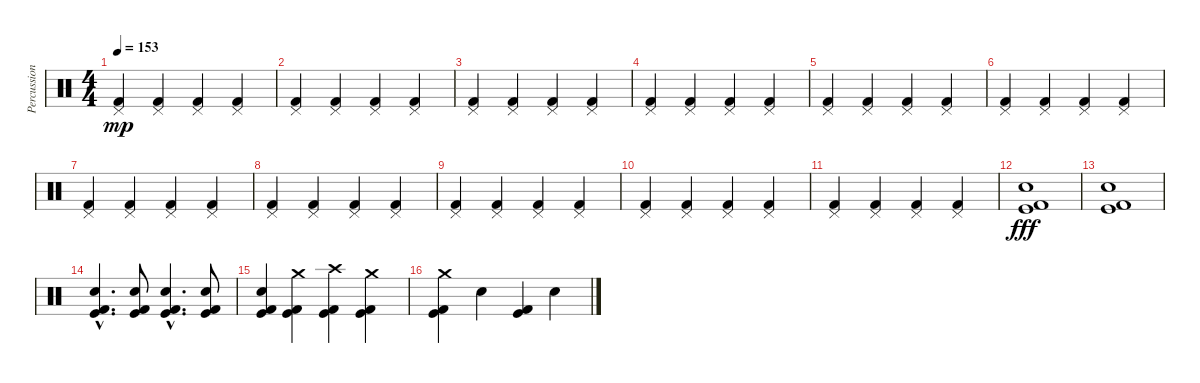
\track ("Percussion" "Percussion") {instrument percussion}
\staff {score}
\articulation defaults
\ts (4 4)
\tempo 153
\clef neutral
\ks c
("Pedal Hi-Hat (hit)" "Kick (hit) 2").4{dy mp} ("Pedal Hi-Hat (hit)" "Kick (hit) 2").4 ("Pedal Hi-Hat (hit)" "Kick (hit) 2").4 ("Pedal Hi-Hat (hit)" "Kick (hit) 2").4 |
("Pedal Hi-Hat (hit)" "Kick (hit) 2").4 ("Pedal Hi-Hat (hit)" "Kick (hit) 2").4 ("Pedal Hi-Hat (hit)" "Kick (hit) 2").4 ("Pedal Hi-Hat (hit)" "Kick (hit) 2").4 |
("Pedal Hi-Hat (hit)" "Kick (hit) 2").4 ("Pedal Hi-Hat (hit)" "Kick (hit) 2").4 ("Pedal Hi-Hat (hit)" "Kick (hit) 2").4 ("Pedal Hi-Hat (hit)" "Kick (hit) 2").4 |
("Pedal Hi-Hat (hit)" "Kick (hit) 2").4 ("Pedal Hi-Hat (hit)" "Kick (hit) 2").4 ("Pedal Hi-Hat (hit)" "Kick (hit) 2").4 ("Pedal Hi-Hat (hit)" "Kick (hit) 2").4 |
("Pedal Hi-Hat (hit)" "Kick (hit) 2").4 ("Pedal Hi-Hat (hit)" "Kick (hit) 2").4 ("Pedal Hi-Hat (hit)" "Kick (hit) 2").4 ("Pedal Hi-Hat (hit)" "Kick (hit) 2").4 |
("Pedal Hi-Hat (hit)" "Kick (hit) 2").4 ("Pedal Hi-Hat (hit)" "Kick (hit) 2").4 ("Pedal Hi-Hat (hit)" "Kick (hit) 2").4 ("Pedal Hi-Hat (hit)" "Kick (hit) 2").4 |
("Pedal Hi-Hat (hit)" "Kick (hit) 2").4 ("Pedal Hi-Hat (hit)" "Kick (hit) 2").4 ("Pedal Hi-Hat (hit)" "Kick (hit) 2").4 ("Pedal Hi-Hat (hit)" "Kick (hit) 2").4 |
("Pedal Hi-Hat (hit)" "Kick (hit) 2").4 ("Pedal Hi-Hat (hit)" "Kick (hit) 2").4 ("Pedal Hi-Hat (hit)" "Kick (hit) 2").4 ("Pedal Hi-Hat (hit)" "Kick (hit) 2").4 |
("Pedal Hi-Hat (hit)" "Kick (hit) 2").4 ("Pedal Hi-Hat (hit)" "Kick (hit) 2").4 ("Pedal Hi-Hat (hit)" "Kick (hit) 2").4 ("Pedal Hi-Hat (hit)" "Kick (hit) 2").4 |
("Pedal Hi-Hat (hit)" "Kick (hit) 2").4 ("Pedal Hi-Hat (hit)" "Kick (hit) 2").4 ("Pedal Hi-Hat (hit)" "Kick (hit) 2").4 ("Pedal Hi-Hat (hit)" "Kick (hit) 2").4 |
("Pedal Hi-Hat (hit)" "Kick (hit) 2").4 ("Pedal Hi-Hat (hit)" "Kick (hit) 2").4 ("Pedal Hi-Hat (hit)" "Kick (hit) 2").4 ("Pedal Hi-Hat (hit)" "Kick (hit) 2").4 |
("Snare (hit) 2" "Kick (hit)" "Kick (hit) 2").1{dy fff} |
("Snare (hit) 2" "Kick (hit)" "Kick (hit) 2").1 |
("Snare (hit) 2"{hac} "Kick (hit)"{hac} "Kick (hit) 2"{hac}).4{d} ("Snare (hit) 2" "Kick (hit)" "Kick (hit) 2").8 ("Snare (hit) 2"{hac} "Kick (hit)"{hac} "Kick (hit) 2"{hac}).4{d} ("Snare (hit) 2" "Kick (hit)" "Kick (hit) 2").8 |
("Snare (hit) 2" "Kick (hit)" "Kick (hit) 2").4 ("Crash medium (hit)" "Kick (hit)" "Kick (hit) 2").4 ("Crash high (hit)" "Kick (hit)" "Kick (hit) 2").4 ("Crash medium (hit)" "Kick (hit)" "Kick (hit) 2").4 |
("Crash medium (hit)" "Kick (hit)" "Kick (hit) 2").4 "Snare (hit) 2".4 ("Kick (hit)" "Kick (hit) 2").4 "Snare (hit) 2".4
